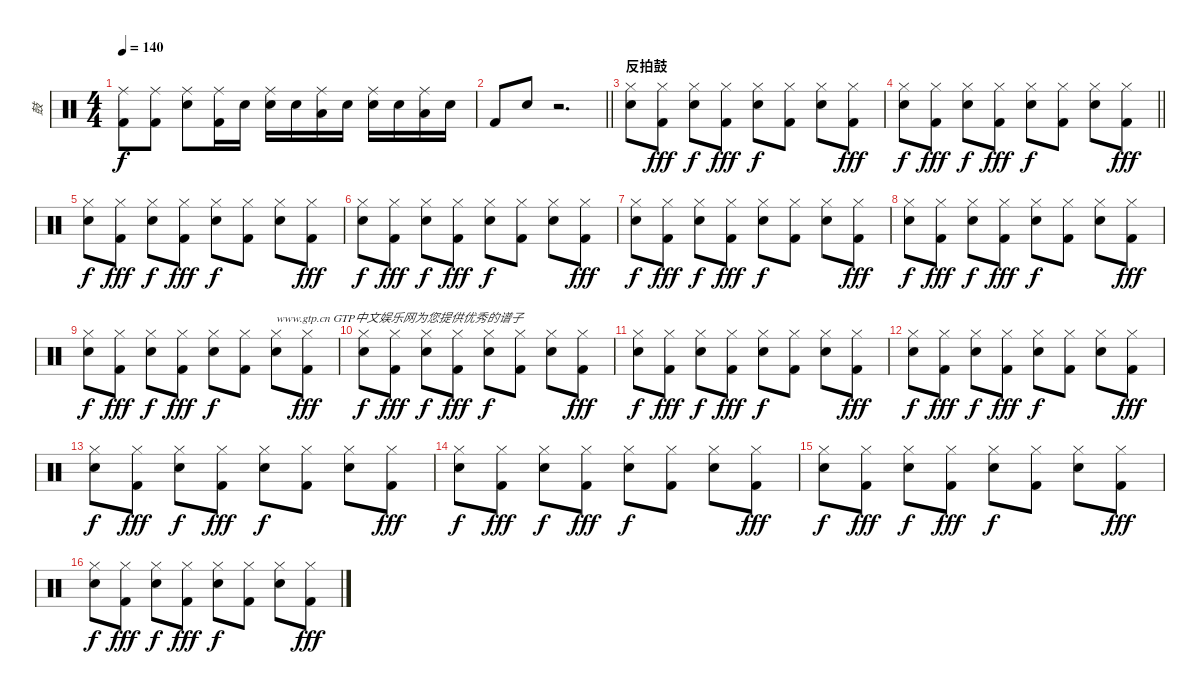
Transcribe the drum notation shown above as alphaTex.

\track ("鼓" "鼓") {instrument percussion}
\staff {score}
\articulation defaults
\ts (4 4)
\tempo 140
\clef neutral
\ks c
("Ride (middle)" "Kick (hit) 2").8{dy f} ("Ride (middle)" "Kick (hit) 2").8 ("Ride (middle)" "Snare (hit) 2").8 ("Ride (middle)" "Kick (hit) 2").16 "Snare (hit) 2".16 ("Ride (middle)" "Snare (hit) 2").16 "Snare (hit) 2".16 ("Ride (middle)" "Low Tom (hit)").16 "Snare (hit) 2".16 ("Ride (middle)" "Snare (hit) 2").16 "Snare (hit) 2".16 ("Ride (middle)" "Low Tom (hit)").16 "Snare (hit) 2".16 |
\barLineRight lightlight "Kick (hit) 2".8 "Snare (hit) 2".8
r.2{d} |
\section ("" "反拍鼓")
("Hi-Hat (closed)" "Snare (hit) 2").8 ("Hi-Hat (closed)" "Kick (hit) 2").8{dy fff} ("Hi-Hat (closed)" "Snare (hit) 2").8{dy f} ("Hi-Hat (closed)" "Kick (hit) 2").8{dy fff} ("Hi-Hat (closed)" "Snare (hit) 2").8{dy f} ("Hi-Hat (closed)" "Kick (hit) 2").8 ("Hi-Hat (closed)" "Snare (hit) 2").8 ("Hi-Hat (closed)" "Kick (hit) 2").8{dy fff} |
\barLineRight lightlight
("Hi-Hat (closed)" "Snare (hit) 2").8{dy f} ("Hi-Hat (closed)" "Kick (hit) 2").8{dy fff} ("Hi-Hat (closed)" "Snare (hit) 2").8{dy f} ("Hi-Hat (closed)" "Kick (hit) 2").8{dy fff} ("Hi-Hat (closed)" "Snare (hit) 2").8{dy f} ("Hi-Hat (closed)" "Kick (hit) 2").8 ("Hi-Hat (closed)" "Snare (hit) 2").8 ("Hi-Hat (closed)" "Kick (hit) 2").8{dy fff} |
("Hi-Hat (closed)" "Snare (hit) 2").8{dy f} ("Hi-Hat (closed)" "Kick (hit) 2").8{dy fff} ("Hi-Hat (closed)" "Snare (hit) 2").8{dy f} ("Hi-Hat (closed)" "Kick (hit) 2").8{dy fff} ("Hi-Hat (closed)" "Snare (hit) 2").8{dy f} ("Hi-Hat (closed)" "Kick (hit) 2").8 ("Hi-Hat (closed)" "Snare (hit) 2").8 ("Hi-Hat (closed)" "Kick (hit) 2").8{dy fff} |
("Hi-Hat (closed)" "Snare (hit) 2").8{dy f} ("Hi-Hat (closed)" "Kick (hit) 2").8{dy fff} ("Hi-Hat (closed)" "Snare (hit) 2").8{dy f} ("Hi-Hat (closed)" "Kick (hit) 2").8{dy fff} ("Hi-Hat (closed)" "Snare (hit) 2").8{dy f} ("Hi-Hat (closed)" "Kick (hit) 2").8 ("Hi-Hat (closed)" "Snare (hit) 2").8 ("Hi-Hat (closed)" "Kick (hit) 2").8{dy fff} |
("Hi-Hat (closed)" "Snare (hit) 2").8{dy f} ("Hi-Hat (closed)" "Kick (hit) 2").8{dy fff} ("Hi-Hat (closed)" "Snare (hit) 2").8{dy f} ("Hi-Hat (closed)" "Kick (hit) 2").8{dy fff} ("Hi-Hat (closed)" "Snare (hit) 2").8{dy f} ("Hi-Hat (closed)" "Kick (hit) 2").8 ("Hi-Hat (closed)" "Snare (hit) 2").8 ("Hi-Hat (closed)" "Kick (hit) 2").8{dy fff} |
("Hi-Hat (closed)" "Snare (hit) 2").8{dy f} ("Hi-Hat (closed)" "Kick (hit) 2").8{dy fff} ("Hi-Hat (closed)" "Snare (hit) 2").8{dy f} ("Hi-Hat (closed)" "Kick (hit) 2").8{dy fff} ("Hi-Hat (closed)" "Snare (hit) 2").8{dy f} ("Hi-Hat (closed)" "Kick (hit) 2").8 ("Hi-Hat (closed)" "Snare (hit) 2").8 ("Hi-Hat (closed)" "Kick (hit) 2").8{dy fff} |
("Hi-Hat (closed)" "Snare (hit) 2").8{dy f} ("Hi-Hat (closed)" "Kick (hit) 2").8{dy fff} ("Hi-Hat (closed)" "Snare (hit) 2").8{dy f} ("Hi-Hat (closed)" "Kick (hit) 2").8{dy fff} ("Hi-Hat (closed)" "Snare (hit) 2").8{dy f} ("Hi-Hat (closed)" "Kick (hit) 2").8 ("Hi-Hat (closed)" "Snare (hit) 2").8{txt "www.gtp.cn GTP中文娱乐网为您提供优秀的谱子"} ("Hi-Hat (closed)" "Kick (hit) 2").8{dy fff} |
("Hi-Hat (closed)" "Snare (hit) 2").8{dy f} ("Hi-Hat (closed)" "Kick (hit) 2").8{dy fff} ("Hi-Hat (closed)" "Snare (hit) 2").8{dy f} ("Hi-Hat (closed)" "Kick (hit) 2").8{dy fff} ("Hi-Hat (closed)" "Snare (hit) 2").8{dy f} ("Hi-Hat (closed)" "Kick (hit) 2").8 ("Hi-Hat (closed)" "Snare (hit) 2").8 ("Hi-Hat (closed)" "Kick (hit) 2").8{dy fff} |
("Hi-Hat (closed)" "Snare (hit) 2").8{dy f} ("Hi-Hat (closed)" "Kick (hit) 2").8{dy fff} ("Hi-Hat (closed)" "Snare (hit) 2").8{dy f} ("Hi-Hat (closed)" "Kick (hit) 2").8{dy fff} ("Hi-Hat (closed)" "Snare (hit) 2").8{dy f} ("Hi-Hat (closed)" "Kick (hit) 2").8 ("Hi-Hat (closed)" "Snare (hit) 2").8 ("Hi-Hat (closed)" "Kick (hit) 2").8{dy fff} |
("Hi-Hat (closed)" "Snare (hit) 2").8{dy f} ("Hi-Hat (closed)" "Kick (hit) 2").8{dy fff} ("Hi-Hat (closed)" "Snare (hit) 2").8{dy f} ("Hi-Hat (closed)" "Kick (hit) 2").8{dy fff} ("Hi-Hat (closed)" "Snare (hit) 2").8{dy f} ("Hi-Hat (closed)" "Kick (hit) 2").8 ("Hi-Hat (closed)" "Snare (hit) 2").8 ("Hi-Hat (closed)" "Kick (hit) 2").8{dy fff} |
("Hi-Hat (closed)" "Snare (hit) 2").8{dy f} ("Hi-Hat (closed)" "Kick (hit) 2").8{dy fff} ("Hi-Hat (closed)" "Snare (hit) 2").8{dy f} ("Hi-Hat (closed)" "Kick (hit) 2").8{dy fff} ("Hi-Hat (closed)" "Snare (hit) 2").8{dy f} ("Hi-Hat (closed)" "Kick (hit) 2").8 ("Hi-Hat (closed)" "Snare (hit) 2").8 ("Hi-Hat (closed)" "Kick (hit) 2").8{dy fff} |
("Hi-Hat (closed)" "Snare (hit) 2").8{dy f} ("Hi-Hat (closed)" "Kick (hit) 2").8{dy fff} ("Hi-Hat (closed)" "Snare (hit) 2").8{dy f} ("Hi-Hat (closed)" "Kick (hit) 2").8{dy fff} ("Hi-Hat (closed)" "Snare (hit) 2").8{dy f} ("Hi-Hat (closed)" "Kick (hit) 2").8 ("Hi-Hat (closed)" "Snare (hit) 2").8 ("Hi-Hat (closed)" "Kick (hit) 2").8{dy fff} |
("Hi-Hat (closed)" "Snare (hit) 2").8{dy f} ("Hi-Hat (closed)" "Kick (hit) 2").8{dy fff} ("Hi-Hat (closed)" "Snare (hit) 2").8{dy f} ("Hi-Hat (closed)" "Kick (hit) 2").8{dy fff} ("Hi-Hat (closed)" "Snare (hit) 2").8{dy f} ("Hi-Hat (closed)" "Kick (hit) 2").8 ("Hi-Hat (closed)" "Snare (hit) 2").8 ("Hi-Hat (closed)" "Kick (hit) 2").8{dy fff} |
("Hi-Hat (closed)" "Snare (hit) 2").8{dy f} ("Hi-Hat (closed)" "Kick (hit) 2").8{dy fff} ("Hi-Hat (closed)" "Snare (hit) 2").8{dy f} ("Hi-Hat (closed)" "Kick (hit) 2").8{dy fff} ("Hi-Hat (closed)" "Snare (hit) 2").8{dy f} ("Hi-Hat (closed)" "Kick (hit) 2").8 ("Hi-Hat (closed)" "Snare (hit) 2").8 ("Hi-Hat (closed)" "Kick (hit) 2").8{dy fff}
